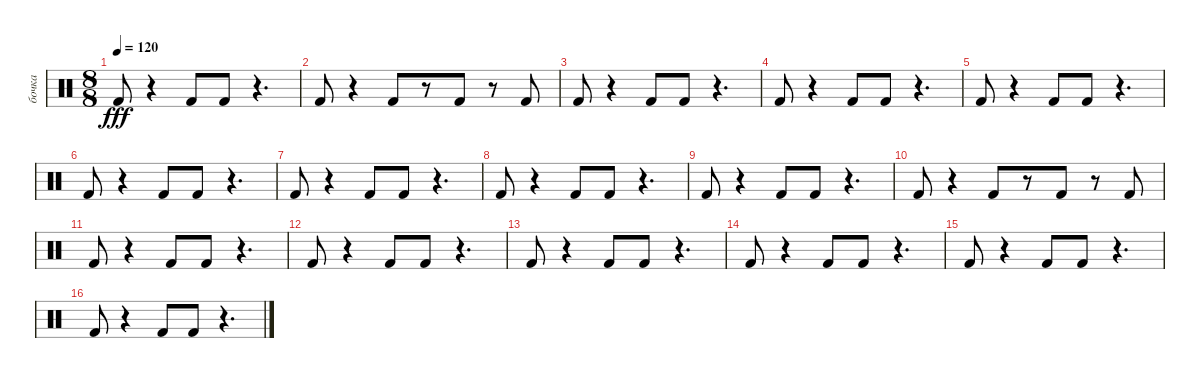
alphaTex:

\track ("бочка" "бочка") {instrument percussion}
\staff {score}
\articulation defaults
\ts (8 8)
\tempo 120
\clef neutral
\ks c "Kick (hit) 2".8{dy fff}
r.4 "Kick (hit) 2".8 "Kick (hit) 2".8 r.4{d} |
"Kick (hit) 2".8 r.4 "Kick (hit) 2".8 r.8 "Kick (hit) 2".8 r.8 "Kick (hit) 2".8 |
"Kick (hit) 2".8 r.4 "Kick (hit) 2".8 "Kick (hit) 2".8 r.4{d} |
"Kick (hit) 2".8 r.4 "Kick (hit) 2".8 "Kick (hit) 2".8 r.4{d} |
"Kick (hit) 2".8 r.4 "Kick (hit) 2".8 "Kick (hit) 2".8 r.4{d} |
"Kick (hit) 2".8 r.4 "Kick (hit) 2".8 "Kick (hit) 2".8 r.4{d} |
"Kick (hit) 2".8 r.4 "Kick (hit) 2".8 "Kick (hit) 2".8 r.4{d} |
"Kick (hit) 2".8 r.4 "Kick (hit) 2".8 "Kick (hit) 2".8 r.4{d} |
"Kick (hit) 2".8 r.4 "Kick (hit) 2".8 "Kick (hit) 2".8 r.4{d} |
"Kick (hit) 2".8 r.4 "Kick (hit) 2".8 r.8 "Kick (hit) 2".8 r.8 "Kick (hit) 2".8 |
"Kick (hit) 2".8 r.4 "Kick (hit) 2".8 "Kick (hit) 2".8 r.4{d} |
"Kick (hit) 2".8 r.4 "Kick (hit) 2".8 "Kick (hit) 2".8 r.4{d} |
"Kick (hit) 2".8 r.4 "Kick (hit) 2".8 "Kick (hit) 2".8 r.4{d} |
"Kick (hit) 2".8 r.4 "Kick (hit) 2".8 "Kick (hit) 2".8 r.4{d} |
"Kick (hit) 2".8 r.4 "Kick (hit) 2".8 "Kick (hit) 2".8 r.4{d} |
"Kick (hit) 2".8 r.4 "Kick (hit) 2".8 "Kick (hit) 2".8 r.4{d}
